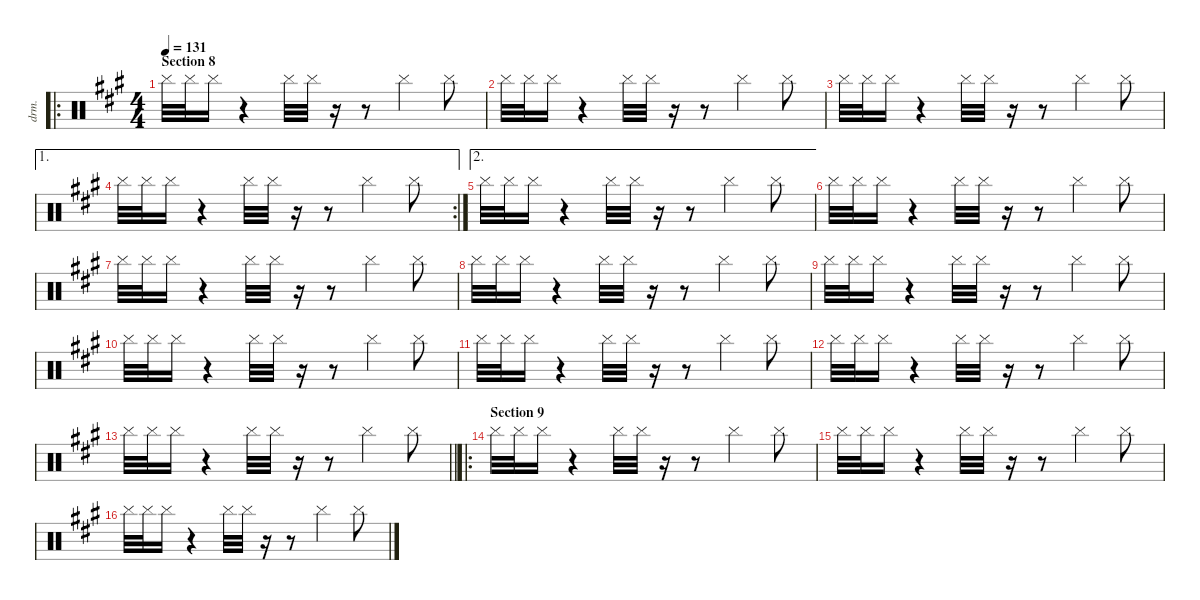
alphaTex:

\defaultSystemsLayout 4
\hideDynamics
\bracketExtendMode nobrackets
\otherSystemsTrackNameOrientation horizontal
\track ("Scratchpad" "drm.") {defaultSystemsLayout 8 instrument percussion}
\staff {score}
\articulation defaults
\ro
\ts (4 4)
\section ("" "Section 8")
\tempo 131
\clef neutral
\ks f#minor "Cymbal (hit)"{acc forcenatural}.32{dy mf beam Down} "Cymbal (hit)"{acc forcenatural}.32{beam Down} "Cymbal (hit)"{acc forcenatural}.16{beam Down}
r.4{beam Down} "Cymbal (hit)"{acc forcenatural}.32{beam Down} "Cymbal (hit)"{acc forcenatural}.32{beam Down} r.16{beam Down} r.8{beam Down} "Cymbal (hit)"{acc forcenatural}.4{beam Down} "Cymbal (hit)"{acc forcenatural}.8{beam Down} |
"Cymbal (hit)"{acc forcenatural}.32{beam Down} "Cymbal (hit)"{acc forcenatural}.32{beam Down} "Cymbal (hit)"{acc forcenatural}.16{beam Down} r.4{beam Down} "Cymbal (hit)"{acc forcenatural}.32{beam Down} "Cymbal (hit)"{acc forcenatural}.32{beam Down} r.16{beam Down} r.8{beam Down} "Cymbal (hit)"{acc forcenatural}.4{beam Down} "Cymbal (hit)"{acc forcenatural}.8{beam Down} |
"Cymbal (hit)"{acc forcenatural}.32{beam Down} "Cymbal (hit)"{acc forcenatural}.32{beam Down} "Cymbal (hit)"{acc forcenatural}.16{beam Down} r.4{beam Down} "Cymbal (hit)"{acc forcenatural}.32{beam Down} "Cymbal (hit)"{acc forcenatural}.32{beam Down} r.16{beam Down} r.8{beam Down} "Cymbal (hit)"{acc forcenatural}.4{beam Down} "Cymbal (hit)"{acc forcenatural}.8{beam Down} |
\ae 1
\rc 2 "Cymbal (hit)"{acc forcenatural}.32{beam Down} "Cymbal (hit)"{acc forcenatural}.32{beam Down} "Cymbal (hit)"{acc forcenatural}.16{beam Down}
r.4{beam Down} "Cymbal (hit)"{acc forcenatural}.32{beam Down} "Cymbal (hit)"{acc forcenatural}.32{beam Down} r.16{beam Down} r.8{beam Down} "Cymbal (hit)"{acc forcenatural}.4{beam Down} "Cymbal (hit)"{acc forcenatural}.8{beam Down} |
\ae 2 "Cymbal (hit)"{acc forcenatural}.32{beam Down} "Cymbal (hit)"{acc forcenatural}.32{beam Down} "Cymbal (hit)"{acc forcenatural}.16{beam Down}
r.4{beam Down} "Cymbal (hit)"{acc forcenatural}.32{beam Down} "Cymbal (hit)"{acc forcenatural}.32{beam Down} r.16{beam Down} r.8{beam Down} "Cymbal (hit)"{acc forcenatural}.4{beam Down} "Cymbal (hit)"{acc forcenatural}.8{beam Down} |
"Cymbal (hit)"{acc forcenatural}.32{beam Down} "Cymbal (hit)"{acc forcenatural}.32{beam Down} "Cymbal (hit)"{acc forcenatural}.16{beam Down} r.4{beam Down} "Cymbal (hit)"{acc forcenatural}.32{beam Down} "Cymbal (hit)"{acc forcenatural}.32{beam Down} r.16{beam Down} r.8{beam Down} "Cymbal (hit)"{acc forcenatural}.4{beam Down} "Cymbal (hit)"{acc forcenatural}.8{beam Down} |
"Cymbal (hit)"{acc forcenatural}.32{beam Down} "Cymbal (hit)"{acc forcenatural}.32{beam Down} "Cymbal (hit)"{acc forcenatural}.16{beam Down} r.4{beam Down} "Cymbal (hit)"{acc forcenatural}.32{beam Down} "Cymbal (hit)"{acc forcenatural}.32{beam Down} r.16{beam Down} r.8{beam Down} "Cymbal (hit)"{acc forcenatural}.4{beam Down} "Cymbal (hit)"{acc forcenatural}.8{beam Down} |
"Cymbal (hit)"{acc forcenatural}.32{beam Down} "Cymbal (hit)"{acc forcenatural}.32{beam Down} "Cymbal (hit)"{acc forcenatural}.16{beam Down} r.4{beam Down} "Cymbal (hit)"{acc forcenatural}.32{beam Down} "Cymbal (hit)"{acc forcenatural}.32{beam Down} r.16{beam Down} r.8{beam Down} "Cymbal (hit)"{acc forcenatural}.4{beam Down} "Cymbal (hit)"{acc forcenatural}.8{beam Down} |
"Cymbal (hit)"{acc forcenatural}.32{beam Down} "Cymbal (hit)"{acc forcenatural}.32{beam Down} "Cymbal (hit)"{acc forcenatural}.16{beam Down} r.4{beam Down} "Cymbal (hit)"{acc forcenatural}.32{beam Down} "Cymbal (hit)"{acc forcenatural}.32{beam Down} r.16{beam Down} r.8{beam Down} "Cymbal (hit)"{acc forcenatural}.4{beam Down} "Cymbal (hit)"{acc forcenatural}.8{beam Down} |
"Cymbal (hit)"{acc forcenatural}.32{beam Down} "Cymbal (hit)"{acc forcenatural}.32{beam Down} "Cymbal (hit)"{acc forcenatural}.16{beam Down} r.4{beam Down} "Cymbal (hit)"{acc forcenatural}.32{beam Down} "Cymbal (hit)"{acc forcenatural}.32{beam Down} r.16{beam Down} r.8{beam Down} "Cymbal (hit)"{acc forcenatural}.4{beam Down} "Cymbal (hit)"{acc forcenatural}.8{beam Down} |
"Cymbal (hit)"{acc forcenatural}.32{beam Down} "Cymbal (hit)"{acc forcenatural}.32{beam Down} "Cymbal (hit)"{acc forcenatural}.16{beam Down} r.4{beam Down} "Cymbal (hit)"{acc forcenatural}.32{beam Down} "Cymbal (hit)"{acc forcenatural}.32{beam Down} r.16{beam Down} r.8{beam Down} "Cymbal (hit)"{acc forcenatural}.4{beam Down} "Cymbal (hit)"{acc forcenatural}.8{beam Down} |
"Cymbal (hit)"{acc forcenatural}.32{beam Down} "Cymbal (hit)"{acc forcenatural}.32{beam Down} "Cymbal (hit)"{acc forcenatural}.16{beam Down} r.4{beam Down} "Cymbal (hit)"{acc forcenatural}.32{beam Down} "Cymbal (hit)"{acc forcenatural}.32{beam Down} r.16{beam Down} r.8{beam Down} "Cymbal (hit)"{acc forcenatural}.4{beam Down} "Cymbal (hit)"{acc forcenatural}.8{beam Down} |
\barLineRight lightlight "Cymbal (hit)"{acc forcenatural}.32{beam Down} "Cymbal (hit)"{acc forcenatural}.32{beam Down} "Cymbal (hit)"{acc forcenatural}.16{beam Down}
r.4{beam Down} "Cymbal (hit)"{acc forcenatural}.32{beam Down} "Cymbal (hit)"{acc forcenatural}.32{beam Down} r.16{beam Down} r.8{beam Down} "Cymbal (hit)"{acc forcenatural}.4{beam Down} "Cymbal (hit)"{acc forcenatural}.8{beam Down} |
\ro
\section ("" "Section 9")
"Cymbal (hit)"{acc forcenatural}.32{beam Down} "Cymbal (hit)"{acc forcenatural}.32{beam Down} "Cymbal (hit)"{acc forcenatural}.16{beam Down} r.4{beam Down} "Cymbal (hit)"{acc forcenatural}.32{beam Down} "Cymbal (hit)"{acc forcenatural}.32{beam Down} r.16{beam Down} r.8{beam Down} "Cymbal (hit)"{acc forcenatural}.4{beam Down} "Cymbal (hit)"{acc forcenatural}.8{beam Down} |
"Cymbal (hit)"{acc forcenatural}.32{beam Down} "Cymbal (hit)"{acc forcenatural}.32{beam Down} "Cymbal (hit)"{acc forcenatural}.16{beam Down} r.4{beam Down} "Cymbal (hit)"{acc forcenatural}.32{beam Down} "Cymbal (hit)"{acc forcenatural}.32{beam Down} r.16{beam Down} r.8{beam Down} "Cymbal (hit)"{acc forcenatural}.4{beam Down} "Cymbal (hit)"{acc forcenatural}.8{beam Down} |
"Cymbal (hit)"{acc forcenatural}.32{beam Down} "Cymbal (hit)"{acc forcenatural}.32{beam Down} "Cymbal (hit)"{acc forcenatural}.16{beam Down} r.4{beam Down} "Cymbal (hit)"{acc forcenatural}.32{beam Down} "Cymbal (hit)"{acc forcenatural}.32{beam Down} r.16{beam Down} r.8{beam Down} "Cymbal (hit)"{acc forcenatural}.4{beam Down} "Cymbal (hit)"{acc forcenatural}.8{beam Down}
